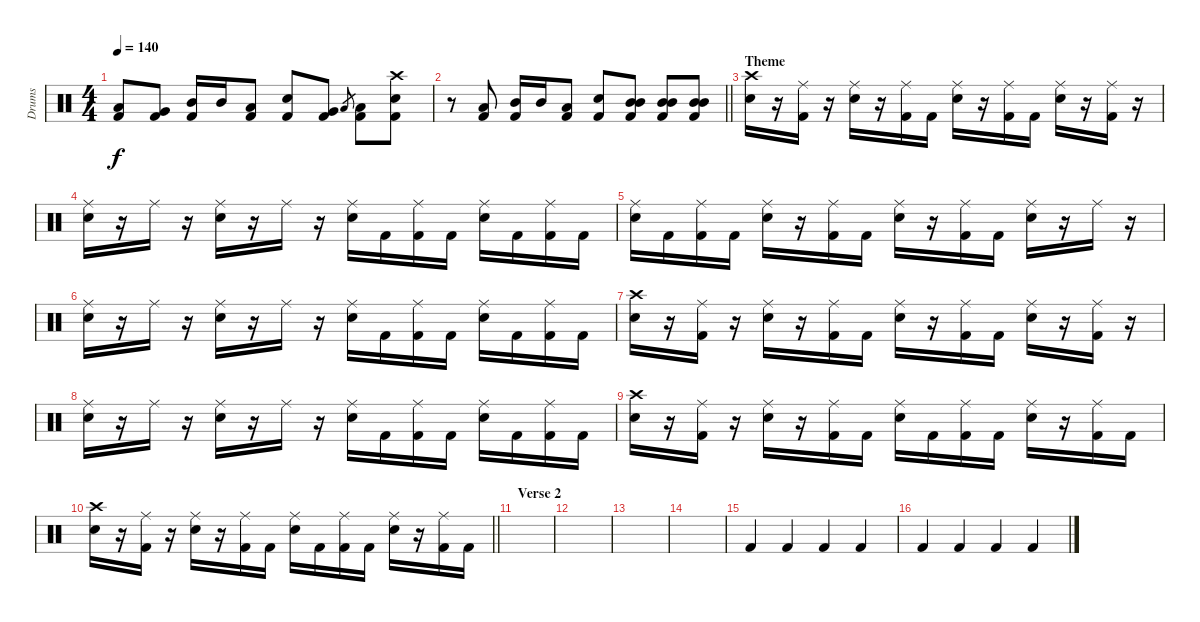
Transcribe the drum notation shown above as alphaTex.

\track ("Drums" "Drums") {instrument percussion}
\staff {score}
\articulation defaults
\ts (4 4)
\tempo 140
\clef neutral
\ks c
("Low Floor Tom (hit)" "Kick (hit) 2").8{dy f} ("Very Low Tom (hit)" "Kick (hit) 2").8 ("Mid Tom (hit)" "Kick (hit) 2").16 "Mid Tom (hit)".16 ("Low Tom (hit)" "Kick (hit) 2").8 ("Snare (hit) 2" "Kick (hit) 2").8 ("Very Low Tom (hit)" "Kick (hit) 2").8 "Low Tom (hit)".8{gr} ("Low Tom (hit)" "Kick (hit) 2").8 ("Crash high (hit)" "Snare (hit) 2" "Kick (hit) 2").8 |
\barLineRight lightlight
r.8 ("Low Tom (hit)" "Kick (hit) 2").8 ("Mid Tom (hit)" "Kick (hit) 2").16 "Mid Tom (hit)".16 ("Low Tom (hit)" "Kick (hit) 2").8 ("Snare (hit) 2" "Kick (hit) 2").8 ("Mid Tom (hit)" "Mid Tom (hit)" "Kick (hit) 2").8 ("Mid Tom (hit)" "Mid Tom (hit)" "Kick (hit) 2").8 ("Mid Tom (hit)" "Mid Tom (hit)" "Kick (hit) 2").8 |
\section ("" "Theme")
("Crash high (hit)" "Snare (hit) 2").16 r.16 ("Ride (middle)" "Kick (hit) 2").16 r.16 ("Ride (middle)" "Snare (hit) 2").16 r.16 ("Ride (middle)" "Kick (hit) 2").16 "Kick (hit) 2".16 ("Ride (middle)" "Snare (hit) 2").16 r.16 ("Ride (middle)" "Kick (hit) 2").16 "Kick (hit) 2".16 ("Ride (middle)" "Snare (hit) 2").16 r.16 ("Ride (middle)" "Kick (hit) 2").16 r.16 |
("Ride (middle)" "Snare (hit) 2").16 r.16 "Ride (middle)".16 r.16 ("Ride (middle)" "Snare (hit) 2").16 r.16 "Ride (middle)".16 r.16 ("Ride (middle)" "Snare (hit) 2").16 "Kick (hit) 2".16 ("Ride (middle)" "Kick (hit) 2").16 "Kick (hit) 2".16 ("Ride (middle)" "Snare (hit) 2").16 "Kick (hit) 2".16 ("Ride (middle)" "Kick (hit) 2").16 "Kick (hit) 2".16 |
("Ride (middle)" "Snare (hit) 2").16 "Kick (hit) 2".16 ("Ride (middle)" "Kick (hit) 2").16 "Kick (hit) 2".16 ("Ride (middle)" "Snare (hit) 2").16 r.16 ("Ride (middle)" "Kick (hit) 2").16 "Kick (hit) 2".16 ("Ride (middle)" "Snare (hit) 2").16 r.16 ("Ride (middle)" "Kick (hit) 2").16 "Kick (hit) 2".16 ("Ride (middle)" "Snare (hit) 2").16 r.16 "Ride (middle)".16 r.16 |
("Ride (middle)" "Snare (hit) 2").16 r.16 "Ride (middle)".16 r.16 ("Ride (middle)" "Snare (hit) 2").16 r.16 "Ride (middle)".16 r.16 ("Ride (middle)" "Snare (hit) 2").16 "Kick (hit) 2".16 ("Ride (middle)" "Kick (hit) 2").16 "Kick (hit) 2".16 ("Ride (middle)" "Snare (hit) 2").16 "Kick (hit) 2".16 ("Ride (middle)" "Kick (hit) 2").16 "Kick (hit) 2".16 |
("Crash high (hit)" "Snare (hit) 2").16 r.16 ("Ride (middle)" "Kick (hit) 2").16 r.16 ("Ride (middle)" "Snare (hit) 2").16 r.16 ("Ride (middle)" "Kick (hit) 2").16 "Kick (hit) 2".16 ("Ride (middle)" "Snare (hit) 2").16 r.16 ("Ride (middle)" "Kick (hit) 2").16 "Kick (hit) 2".16 ("Ride (middle)" "Snare (hit) 2").16 r.16 ("Ride (middle)" "Kick (hit) 2").16 r.16 |
("Ride (middle)" "Snare (hit) 2").16 r.16 "Ride (middle)".16 r.16 ("Ride (middle)" "Snare (hit) 2").16 r.16 "Ride (middle)".16 r.16 ("Ride (middle)" "Snare (hit) 2").16 "Kick (hit) 2".16 ("Ride (middle)" "Kick (hit) 2").16 "Kick (hit) 2".16 ("Ride (middle)" "Snare (hit) 2").16 "Kick (hit) 2".16 ("Ride (middle)" "Kick (hit) 2").16 "Kick (hit) 2".16 |
("Crash high (hit)" "Snare (hit) 2").16 r.16 ("Ride (middle)" "Kick (hit) 2").16 r.16 ("Ride (middle)" "Snare (hit) 2").16 r.16 ("Ride (middle)" "Kick (hit) 2").16 "Kick (hit) 2".16 ("Ride (middle)" "Snare (hit) 2").16 "Kick (hit) 2".16 ("Ride (middle)" "Kick (hit) 2").16 "Kick (hit) 2".16 ("Ride (middle)" "Snare (hit) 2").16 r.16 ("Ride (middle)" "Kick (hit) 2").16 "Kick (hit) 2".16 |
\barLineRight lightlight
("Crash high (hit)" "Snare (hit) 2").16 r.16 ("Ride (middle)" "Kick (hit) 2").16 r.16 ("Ride (middle)" "Snare (hit) 2").16 r.16 ("Ride (middle)" "Kick (hit) 2").16 "Kick (hit) 2".16 ("Ride (middle)" "Snare (hit) 2").16 "Kick (hit) 2".16 ("Ride (middle)" "Kick (hit) 2").16 "Kick (hit) 2".16 ("Ride (middle)" "Snare (hit) 2").16 r.16 ("Ride (middle)" "Kick (hit) 2").16 "Kick (hit) 2".16 |
\section ("" "Verse 2")
|
|
|
|
"Kick (hit) 2".4 "Kick (hit) 2".4 "Kick (hit) 2".4 "Kick (hit) 2".4 |
"Kick (hit) 2".4 "Kick (hit) 2".4 "Kick (hit) 2".4 "Kick (hit) 2".4
